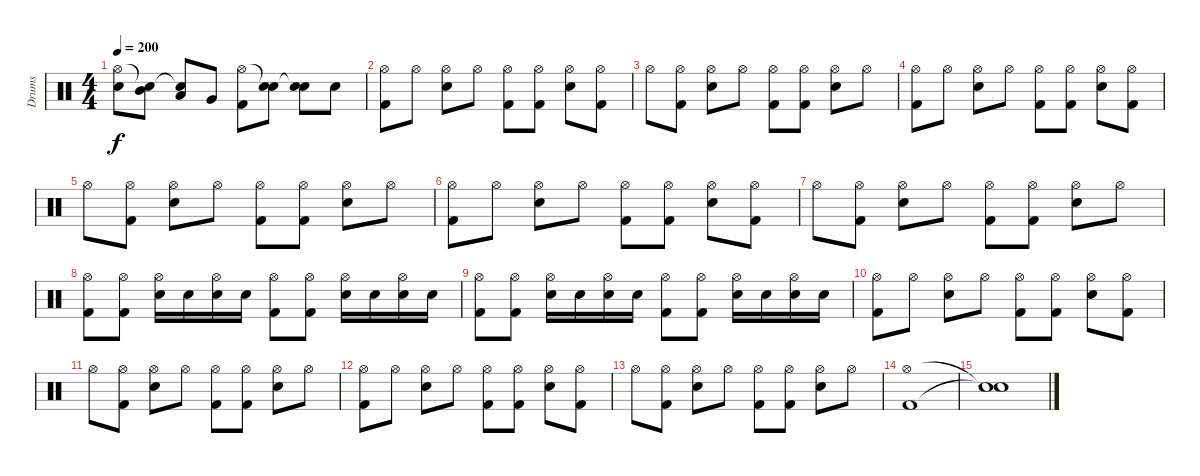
\track ("Drums" "Drums") {instrument percussion}
\staff {score}
\articulation defaults
\ts (4 4)
\tempo 200
\clef neutral
\ks c
("Hi-Hat (open)" "Snare (hit)"{t}).8{dy f} ("Snare (hit)"{t} "Mid Tom (hit)").8 ("Snare (hit)"{t} "Low Tom (hit)").8 "Very Low Tom (hit)".8 ("Hi-Hat (open)" "Kick (hit) 2").8 ("Snare (hit)"{t} "Electric Snare (hit)").8 ("Snare (hit)"{t} "Electric Snare (hit)").8 "Electric Snare (hit)".8 |
("Hi-Hat (open)" "Kick (hit) 2").8 "Hi-Hat (open)".8 ("Hi-Hat (open)" "Electric Snare (hit)").8 "Hi-Hat (open)".8 ("Hi-Hat (open)" "Kick (hit) 2").8 ("Hi-Hat (open)" "Kick (hit) 2").8 ("Hi-Hat (open)" "Electric Snare (hit)").8 ("Hi-Hat (open)" "Kick (hit) 2").8 |
"Hi-Hat (open)".8 ("Hi-Hat (open)" "Kick (hit) 2").8 ("Hi-Hat (open)" "Electric Snare (hit)").8 "Hi-Hat (open)".8 ("Hi-Hat (open)" "Kick (hit) 2").8 ("Hi-Hat (open)" "Kick (hit) 2").8 ("Hi-Hat (open)" "Electric Snare (hit)").8 "Hi-Hat (open)".8 |
("Hi-Hat (open)" "Kick (hit) 2").8 "Hi-Hat (open)".8 ("Hi-Hat (open)" "Electric Snare (hit)").8 "Hi-Hat (open)".8 ("Hi-Hat (open)" "Kick (hit) 2").8 ("Hi-Hat (open)" "Kick (hit) 2").8 ("Hi-Hat (open)" "Electric Snare (hit)").8 ("Hi-Hat (open)" "Kick (hit) 2").8 |
"Hi-Hat (open)".8 ("Hi-Hat (open)" "Kick (hit) 2").8 ("Hi-Hat (open)" "Electric Snare (hit)").8 "Hi-Hat (open)".8 ("Hi-Hat (open)" "Kick (hit) 2").8 ("Hi-Hat (open)" "Kick (hit) 2").8 ("Hi-Hat (open)" "Electric Snare (hit)").8 "Hi-Hat (open)".8 |
("Hi-Hat (open)" "Kick (hit) 2").8 "Hi-Hat (open)".8 ("Hi-Hat (open)" "Electric Snare (hit)").8 "Hi-Hat (open)".8 ("Hi-Hat (open)" "Kick (hit) 2").8 ("Hi-Hat (open)" "Kick (hit) 2").8 ("Hi-Hat (open)" "Electric Snare (hit)").8 ("Hi-Hat (open)" "Kick (hit) 2").8 |
"Hi-Hat (open)".8 ("Hi-Hat (open)" "Kick (hit) 2").8 ("Hi-Hat (open)" "Electric Snare (hit)").8 "Hi-Hat (open)".8 ("Hi-Hat (open)" "Kick (hit) 2").8 ("Hi-Hat (open)" "Kick (hit) 2").8 ("Hi-Hat (open)" "Electric Snare (hit)").8 "Hi-Hat (open)".8 |
("Hi-Hat (open)" "Kick (hit) 2").8 ("Hi-Hat (open)" "Kick (hit) 2").8 ("Hi-Hat (open)" "Electric Snare (hit)").16 "Electric Snare (hit)".16 ("Hi-Hat (open)" "Electric Snare (hit)").16 "Electric Snare (hit)".16 ("Hi-Hat (open)" "Kick (hit) 2").8 ("Hi-Hat (open)" "Kick (hit) 2").8 ("Hi-Hat (open)" "Electric Snare (hit)").16 "Electric Snare (hit)".16 ("Hi-Hat (open)" "Electric Snare (hit)").16 "Electric Snare (hit)".16 |
("Hi-Hat (open)" "Kick (hit) 2").8 ("Hi-Hat (open)" "Kick (hit) 2").8 ("Hi-Hat (open)" "Electric Snare (hit)").16 "Electric Snare (hit)".16 ("Hi-Hat (open)" "Electric Snare (hit)").16 "Electric Snare (hit)".16 ("Hi-Hat (open)" "Kick (hit) 2").8 ("Hi-Hat (open)" "Kick (hit) 2").8 ("Hi-Hat (open)" "Electric Snare (hit)").16 "Electric Snare (hit)".16 ("Hi-Hat (open)" "Electric Snare (hit)").16 "Electric Snare (hit)".16 |
("Hi-Hat (open)" "Kick (hit) 2").8 "Hi-Hat (open)".8 ("Hi-Hat (open)" "Electric Snare (hit)").8 "Hi-Hat (open)".8 ("Hi-Hat (open)" "Kick (hit) 2").8 ("Hi-Hat (open)" "Kick (hit) 2").8 ("Hi-Hat (open)" "Electric Snare (hit)").8 ("Hi-Hat (open)" "Kick (hit) 2").8 |
"Hi-Hat (open)".8 ("Hi-Hat (open)" "Kick (hit) 2").8 ("Hi-Hat (open)" "Electric Snare (hit)").8 "Hi-Hat (open)".8 ("Hi-Hat (open)" "Kick (hit) 2").8 ("Hi-Hat (open)" "Kick (hit) 2").8 ("Hi-Hat (open)" "Electric Snare (hit)").8 "Hi-Hat (open)".8 |
("Hi-Hat (open)" "Kick (hit) 2").8 "Hi-Hat (open)".8 ("Hi-Hat (open)" "Electric Snare (hit)").8 "Hi-Hat (open)".8 ("Hi-Hat (open)" "Kick (hit) 2").8 ("Hi-Hat (open)" "Kick (hit) 2").8 ("Hi-Hat (open)" "Electric Snare (hit)").8 ("Hi-Hat (open)" "Kick (hit) 2").8 |
"Hi-Hat (open)".8 ("Hi-Hat (open)" "Kick (hit) 2").8 ("Hi-Hat (open)" "Electric Snare (hit)").8 "Hi-Hat (open)".8 ("Hi-Hat (open)" "Kick (hit) 2").8 ("Hi-Hat (open)" "Kick (hit) 2").8 ("Hi-Hat (open)" "Electric Snare (hit)").8 "Hi-Hat (open)".8 |
("Hi-Hat (open)" "Kick (hit) 2").1 |
("Snare (hit)"{t} "Snare (hit)"{t}).1
